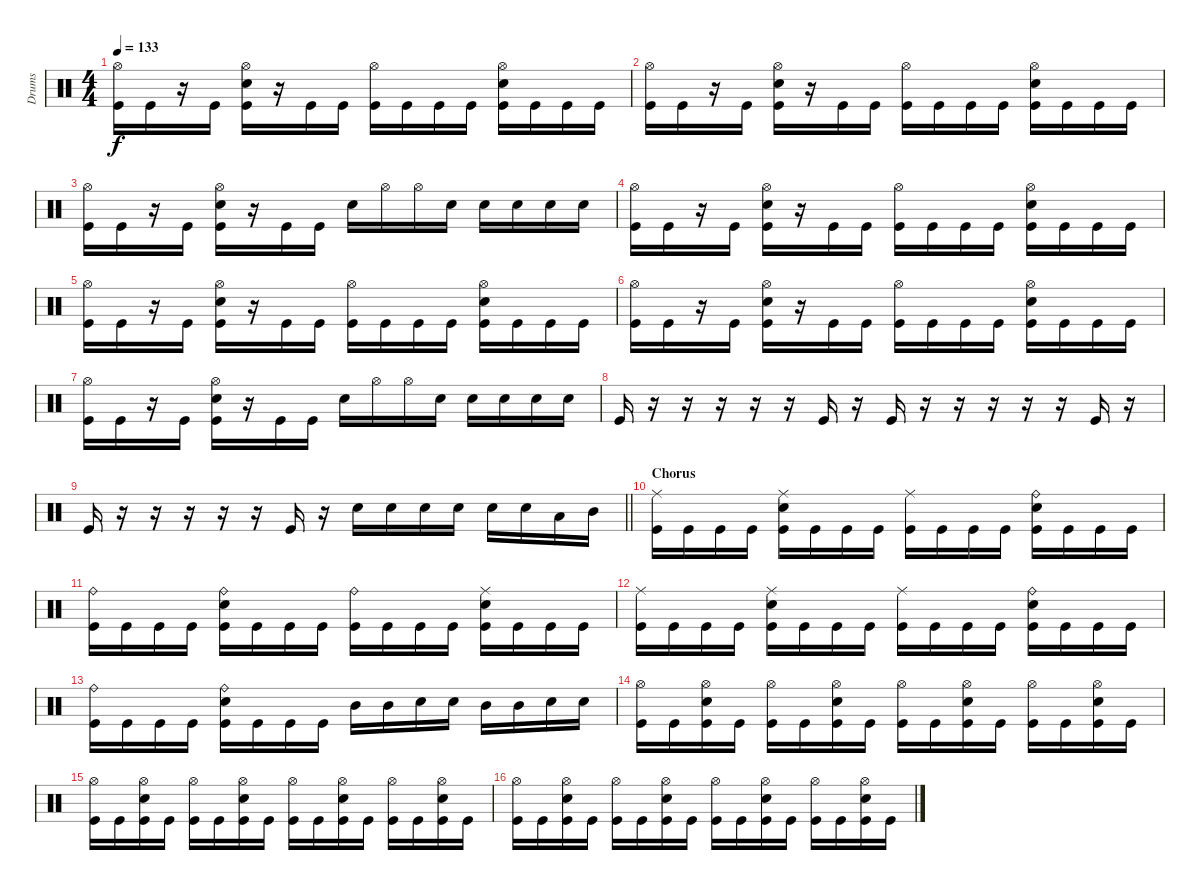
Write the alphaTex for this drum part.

\track ("Drums" "Drums") {instrument percussion}
\staff {score}
\articulation defaults
\ts (4 4)
\tempo 133
\clef neutral
\ks c
("Hi-Hat (open)" "Kick (hit)").16{dy f} "Kick (hit)".16 r.16 "Kick (hit)".16 ("Hi-Hat (open)" "Electric Snare (hit)" "Kick (hit)").16 r.16 "Kick (hit)".16 "Kick (hit)".16 ("Hi-Hat (open)" "Kick (hit)").16 "Kick (hit)".16 "Kick (hit)".16 "Kick (hit)".16 ("Hi-Hat (open)" "Electric Snare (hit)" "Kick (hit)").16 "Kick (hit)".16 "Kick (hit)".16 "Kick (hit)".16 |
("Hi-Hat (open)" "Kick (hit)").16 "Kick (hit)".16 r.16 "Kick (hit)".16 ("Hi-Hat (open)" "Electric Snare (hit)" "Kick (hit)").16 r.16 "Kick (hit)".16 "Kick (hit)".16 ("Hi-Hat (open)" "Kick (hit)").16 "Kick (hit)".16 "Kick (hit)".16 "Kick (hit)".16 ("Hi-Hat (open)" "Electric Snare (hit)" "Kick (hit)").16 "Kick (hit)".16 "Kick (hit)".16 "Kick (hit)".16 |
("Hi-Hat (open)" "Kick (hit)").16 "Kick (hit)".16 r.16 "Kick (hit)".16 ("Hi-Hat (open)" "Electric Snare (hit)" "Kick (hit)").16 r.16 "Kick (hit)".16 "Kick (hit)".16 "Electric Snare (hit)".16 "Hi-Hat (open)".16 "Hi-Hat (open)".16 "Electric Snare (hit)".16 "Electric Snare (hit)".16 "Electric Snare (hit)".16 "Electric Snare (hit)".16 "Electric Snare (hit)".16 |
("Hi-Hat (open)" "Kick (hit)").16 "Kick (hit)".16 r.16 "Kick (hit)".16 ("Hi-Hat (open)" "Electric Snare (hit)" "Kick (hit)").16 r.16 "Kick (hit)".16 "Kick (hit)".16 ("Hi-Hat (open)" "Kick (hit)").16 "Kick (hit)".16 "Kick (hit)".16 "Kick (hit)".16 ("Hi-Hat (open)" "Electric Snare (hit)" "Kick (hit)").16 "Kick (hit)".16 "Kick (hit)".16 "Kick (hit)".16 |
("Hi-Hat (open)" "Kick (hit)").16 "Kick (hit)".16 r.16 "Kick (hit)".16 ("Hi-Hat (open)" "Electric Snare (hit)" "Kick (hit)").16 r.16 "Kick (hit)".16 "Kick (hit)".16 ("Hi-Hat (open)" "Kick (hit)").16 "Kick (hit)".16 "Kick (hit)".16 "Kick (hit)".16 ("Hi-Hat (open)" "Electric Snare (hit)" "Kick (hit)").16 "Kick (hit)".16 "Kick (hit)".16 "Kick (hit)".16 |
("Hi-Hat (open)" "Kick (hit)").16 "Kick (hit)".16 r.16 "Kick (hit)".16 ("Hi-Hat (open)" "Electric Snare (hit)" "Kick (hit)").16 r.16 "Kick (hit)".16 "Kick (hit)".16 ("Hi-Hat (open)" "Kick (hit)").16 "Kick (hit)".16 "Kick (hit)".16 "Kick (hit)".16 ("Hi-Hat (open)" "Electric Snare (hit)" "Kick (hit)").16 "Kick (hit)".16 "Kick (hit)".16 "Kick (hit)".16 |
("Hi-Hat (open)" "Kick (hit)").16 "Kick (hit)".16 r.16 "Kick (hit)".16 ("Hi-Hat (open)" "Electric Snare (hit)" "Kick (hit)").16 r.16 "Kick (hit)".16 "Kick (hit)".16 "Electric Snare (hit)".16 "Hi-Hat (open)".16 "Hi-Hat (open)".16 "Electric Snare (hit)".16 "Electric Snare (hit)".16 "Electric Snare (hit)".16 "Electric Snare (hit)".16 "Electric Snare (hit)".16 |
"Kick (hit)".16 r.16 r.16 r.16 r.16 r.16 "Kick (hit)".16 r.16 "Kick (hit)".16 r.16 r.16 r.16 r.16 r.16 "Kick (hit)".16 r.16 |
\barLineRight lightlight "Kick (hit)".16
r.16 r.16 r.16 r.16 r.16 "Kick (hit)".16 r.16 "Electric Snare (hit)".16 "Electric Snare (hit)".16 "Electric Snare (hit)".16 "Electric Snare (hit)".16 "Electric Snare (hit)".16 "Electric Snare (hit)".16 "Low Tom (hit)".16 "Mid Tom (hit)".16 |
\section ("" "Chorus")
("Ride (middle)" "Kick (hit)").16 "Kick (hit)".16 "Kick (hit)".16 "Kick (hit)".16 ("Ride (middle)" "Electric Snare (hit)" "Kick (hit)").16 "Kick (hit)".16 "Kick (hit)".16 "Kick (hit)".16 ("Ride (middle)" "Kick (hit)").16 "Kick (hit)".16 "Kick (hit)".16 "Kick (hit)".16 ("Ride (bell)" "Electric Snare (hit)" "Kick (hit)").16 "Kick (hit)".16 "Kick (hit)".16 "Kick (hit)".16 |
("Ride (bell)" "Kick (hit)").16 "Kick (hit)".16 "Kick (hit)".16 "Kick (hit)".16 ("Ride (bell)" "Electric Snare (hit)" "Kick (hit)").16 "Kick (hit)".16 "Kick (hit)".16 "Kick (hit)".16 ("Ride (bell)" "Kick (hit)").16 "Kick (hit)".16 "Kick (hit)".16 "Kick (hit)".16 ("Ride (middle)" "Electric Snare (hit)" "Kick (hit)").16 "Kick (hit)".16 "Kick (hit)".16 "Kick (hit)".16 |
("Ride (middle)" "Kick (hit)").16 "Kick (hit)".16 "Kick (hit)".16 "Kick (hit)".16 ("Ride (middle)" "Electric Snare (hit)" "Kick (hit)").16 "Kick (hit)".16 "Kick (hit)".16 "Kick (hit)".16 ("Ride (middle)" "Kick (hit)").16 "Kick (hit)".16 "Kick (hit)".16 "Kick (hit)".16 ("Ride (bell)" "Electric Snare (hit)" "Kick (hit)").16 "Kick (hit)".16 "Kick (hit)".16 "Kick (hit)".16 |
("Ride (bell)" "Kick (hit)").16 "Kick (hit)".16 "Kick (hit)".16 "Kick (hit)".16 ("Ride (bell)" "Electric Snare (hit)" "Kick (hit)").16 "Kick (hit)".16 "Kick (hit)".16 "Kick (hit)".16 "Mid Tom (hit)".16 "Mid Tom (hit)".16 "Electric Snare (hit)".16 "Electric Snare (hit)".16 "Mid Tom (hit)".16 "Mid Tom (hit)".16 "Electric Snare (hit)".16 "Electric Snare (hit)".16 |
("Hi-Hat (open)" "Kick (hit)").16 "Kick (hit)".16 ("Hi-Hat (open)" "Electric Snare (hit)" "Kick (hit)").16 "Kick (hit)".16 ("Hi-Hat (open)" "Kick (hit)").16 "Kick (hit)".16 ("Hi-Hat (open)" "Electric Snare (hit)" "Kick (hit)").16 "Kick (hit)".16 ("Hi-Hat (open)" "Kick (hit)").16 "Kick (hit)".16 ("Hi-Hat (open)" "Electric Snare (hit)" "Kick (hit)").16 "Kick (hit)".16 ("Hi-Hat (open)" "Kick (hit)").16 "Kick (hit)".16 ("Hi-Hat (open)" "Electric Snare (hit)" "Kick (hit)").16 "Kick (hit)".16 |
("Hi-Hat (open)" "Kick (hit)").16 "Kick (hit)".16 ("Hi-Hat (open)" "Electric Snare (hit)" "Kick (hit)").16 "Kick (hit)".16 ("Hi-Hat (open)" "Kick (hit)").16 "Kick (hit)".16 ("Hi-Hat (open)" "Electric Snare (hit)" "Kick (hit)").16 "Kick (hit)".16 ("Hi-Hat (open)" "Kick (hit)").16 "Kick (hit)".16 ("Hi-Hat (open)" "Electric Snare (hit)" "Kick (hit)").16 "Kick (hit)".16 ("Hi-Hat (open)" "Kick (hit)").16 "Kick (hit)".16 ("Hi-Hat (open)" "Electric Snare (hit)" "Kick (hit)").16 "Kick (hit)".16 |
("Hi-Hat (open)" "Kick (hit)").16 "Kick (hit)".16 ("Hi-Hat (open)" "Electric Snare (hit)" "Kick (hit)").16 "Kick (hit)".16 ("Hi-Hat (open)" "Kick (hit)").16 "Kick (hit)".16 ("Hi-Hat (open)" "Electric Snare (hit)" "Kick (hit)").16 "Kick (hit)".16 ("Hi-Hat (open)" "Kick (hit)").16 "Kick (hit)".16 ("Hi-Hat (open)" "Electric Snare (hit)" "Kick (hit)").16 "Kick (hit)".16 ("Hi-Hat (open)" "Kick (hit)").16 "Kick (hit)".16 ("Hi-Hat (open)" "Electric Snare (hit)" "Kick (hit)").16 "Kick (hit)".16
